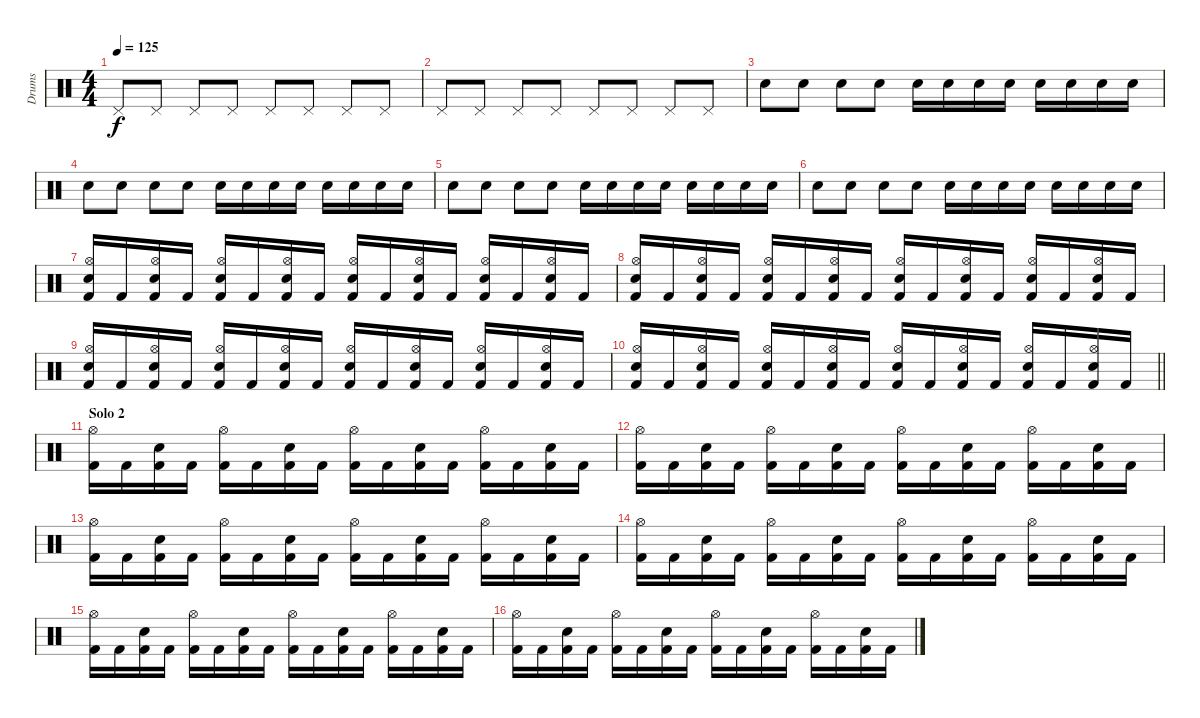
\track ("Drums" "Drums") {instrument percussion}
\staff {score}
\articulation defaults
\ts (4 4)
\tempo 125
\clef neutral
\ks c "Pedal Hi-Hat (hit)".8{dy f} "Pedal Hi-Hat (hit)".8 "Pedal Hi-Hat (hit)".8 "Pedal Hi-Hat (hit)".8 "Pedal Hi-Hat (hit)".8 "Pedal Hi-Hat (hit)".8 "Pedal Hi-Hat (hit)".8 "Pedal Hi-Hat (hit)".8
|
"Pedal Hi-Hat (hit)".8 "Pedal Hi-Hat (hit)".8 "Pedal Hi-Hat (hit)".8 "Pedal Hi-Hat (hit)".8 "Pedal Hi-Hat (hit)".8 "Pedal Hi-Hat (hit)".8 "Pedal Hi-Hat (hit)".8 "Pedal Hi-Hat (hit)".8 |
"Snare (hit) 2".8 "Snare (hit) 2".8 "Snare (hit) 2".8 "Snare (hit) 2".8 "Snare (hit) 2".16 "Snare (hit) 2".16 "Snare (hit) 2".16 "Snare (hit) 2".16 "Snare (hit) 2".16 "Snare (hit) 2".16 "Snare (hit) 2".16 "Snare (hit) 2".16 |
"Snare (hit) 2".8 "Snare (hit) 2".8 "Snare (hit) 2".8 "Snare (hit) 2".8 "Snare (hit) 2".16 "Snare (hit) 2".16 "Snare (hit) 2".16 "Snare (hit) 2".16 "Snare (hit) 2".16 "Snare (hit) 2".16 "Snare (hit) 2".16 "Snare (hit) 2".16 |
"Snare (hit) 2".8 "Snare (hit) 2".8 "Snare (hit) 2".8 "Snare (hit) 2".8 "Snare (hit) 2".16 "Snare (hit) 2".16 "Snare (hit) 2".16 "Snare (hit) 2".16 "Snare (hit) 2".16 "Snare (hit) 2".16 "Snare (hit) 2".16 "Snare (hit) 2".16 |
"Snare (hit) 2".8 "Snare (hit) 2".8 "Snare (hit) 2".8 "Snare (hit) 2".8 "Snare (hit) 2".16 "Snare (hit) 2".16 "Snare (hit) 2".16 "Snare (hit) 2".16 "Snare (hit) 2".16 "Snare (hit) 2".16 "Snare (hit) 2".16 "Snare (hit) 2".16 |
("Hi-Hat (open)" "Snare (hit) 2" "Kick (hit) 2").16 "Kick (hit) 2".16 ("Hi-Hat (open)" "Snare (hit) 2" "Kick (hit) 2").16 "Kick (hit) 2".16 ("Hi-Hat (open)" "Snare (hit) 2" "Kick (hit) 2").16 "Kick (hit) 2".16 ("Hi-Hat (open)" "Snare (hit) 2" "Kick (hit) 2").16 "Kick (hit) 2".16 ("Hi-Hat (open)" "Snare (hit) 2" "Kick (hit) 2").16 "Kick (hit) 2".16 ("Hi-Hat (open)" "Snare (hit) 2" "Kick (hit) 2").16 "Kick (hit) 2".16 ("Hi-Hat (open)" "Snare (hit) 2" "Kick (hit) 2").16 "Kick (hit) 2".16 ("Hi-Hat (open)" "Snare (hit) 2" "Kick (hit) 2").16 "Kick (hit) 2".16 |
("Hi-Hat (open)" "Snare (hit) 2" "Kick (hit) 2").16 "Kick (hit) 2".16 ("Hi-Hat (open)" "Snare (hit) 2" "Kick (hit) 2").16 "Kick (hit) 2".16 ("Hi-Hat (open)" "Snare (hit) 2" "Kick (hit) 2").16 "Kick (hit) 2".16 ("Hi-Hat (open)" "Snare (hit) 2" "Kick (hit) 2").16 "Kick (hit) 2".16 ("Hi-Hat (open)" "Snare (hit) 2" "Kick (hit) 2").16 "Kick (hit) 2".16 ("Hi-Hat (open)" "Snare (hit) 2" "Kick (hit) 2").16 "Kick (hit) 2".16 ("Hi-Hat (open)" "Snare (hit) 2" "Kick (hit) 2").16 "Kick (hit) 2".16 ("Hi-Hat (open)" "Snare (hit) 2" "Kick (hit) 2").16 "Kick (hit) 2".16 |
("Hi-Hat (open)" "Snare (hit) 2" "Kick (hit) 2").16 "Kick (hit) 2".16 ("Hi-Hat (open)" "Snare (hit) 2" "Kick (hit) 2").16 "Kick (hit) 2".16 ("Hi-Hat (open)" "Snare (hit) 2" "Kick (hit) 2").16 "Kick (hit) 2".16 ("Hi-Hat (open)" "Snare (hit) 2" "Kick (hit) 2").16 "Kick (hit) 2".16 ("Hi-Hat (open)" "Snare (hit) 2" "Kick (hit) 2").16 "Kick (hit) 2".16 ("Hi-Hat (open)" "Snare (hit) 2" "Kick (hit) 2").16 "Kick (hit) 2".16 ("Hi-Hat (open)" "Snare (hit) 2" "Kick (hit) 2").16 "Kick (hit) 2".16 ("Hi-Hat (open)" "Snare (hit) 2" "Kick (hit) 2").16 "Kick (hit) 2".16 |
\barLineRight lightlight
("Hi-Hat (open)" "Snare (hit) 2" "Kick (hit) 2").16 "Kick (hit) 2".16 ("Hi-Hat (open)" "Snare (hit) 2" "Kick (hit) 2").16 "Kick (hit) 2".16 ("Hi-Hat (open)" "Snare (hit) 2" "Kick (hit) 2").16 "Kick (hit) 2".16 ("Hi-Hat (open)" "Snare (hit) 2" "Kick (hit) 2").16 "Kick (hit) 2".16 ("Hi-Hat (open)" "Snare (hit) 2" "Kick (hit) 2").16 "Kick (hit) 2".16 ("Hi-Hat (open)" "Snare (hit) 2" "Kick (hit) 2").16 "Kick (hit) 2".16 ("Hi-Hat (open)" "Snare (hit) 2" "Kick (hit) 2").16 "Kick (hit) 2".16 ("Hi-Hat (open)" "Snare (hit) 2" "Kick (hit) 2").16 "Kick (hit) 2".16 |
\section ("" "Solo 2")
("Hi-Hat (open)" "Kick (hit) 2").16 "Kick (hit) 2".16 ("Snare (hit) 2" "Kick (hit) 2").16 "Kick (hit) 2".16 ("Hi-Hat (open)" "Kick (hit) 2").16 "Kick (hit) 2".16 ("Snare (hit) 2" "Kick (hit) 2").16 "Kick (hit) 2".16 ("Hi-Hat (open)" "Kick (hit) 2").16 "Kick (hit) 2".16 ("Snare (hit) 2" "Kick (hit) 2").16 "Kick (hit) 2".16 ("Hi-Hat (open)" "Kick (hit) 2").16 "Kick (hit) 2".16 ("Snare (hit) 2" "Kick (hit) 2").16 "Kick (hit) 2".16 |
("Hi-Hat (open)" "Kick (hit) 2").16 "Kick (hit) 2".16 ("Snare (hit) 2" "Kick (hit) 2").16 "Kick (hit) 2".16 ("Hi-Hat (open)" "Kick (hit) 2").16 "Kick (hit) 2".16 ("Snare (hit) 2" "Kick (hit) 2").16 "Kick (hit) 2".16 ("Hi-Hat (open)" "Kick (hit) 2").16 "Kick (hit) 2".16 ("Snare (hit) 2" "Kick (hit) 2").16 "Kick (hit) 2".16 ("Hi-Hat (open)" "Kick (hit) 2").16 "Kick (hit) 2".16 ("Snare (hit) 2" "Kick (hit) 2").16 "Kick (hit) 2".16 |
("Hi-Hat (open)" "Kick (hit) 2").16 "Kick (hit) 2".16 ("Snare (hit) 2" "Kick (hit) 2").16 "Kick (hit) 2".16 ("Hi-Hat (open)" "Kick (hit) 2").16 "Kick (hit) 2".16 ("Snare (hit) 2" "Kick (hit) 2").16 "Kick (hit) 2".16 ("Hi-Hat (open)" "Kick (hit) 2").16 "Kick (hit) 2".16 ("Snare (hit) 2" "Kick (hit) 2").16 "Kick (hit) 2".16 ("Hi-Hat (open)" "Kick (hit) 2").16 "Kick (hit) 2".16 ("Snare (hit) 2" "Kick (hit) 2").16 "Kick (hit) 2".16 |
("Hi-Hat (open)" "Kick (hit) 2").16 "Kick (hit) 2".16 ("Snare (hit) 2" "Kick (hit) 2").16 "Kick (hit) 2".16 ("Hi-Hat (open)" "Kick (hit) 2").16 "Kick (hit) 2".16 ("Snare (hit) 2" "Kick (hit) 2").16 "Kick (hit) 2".16 ("Hi-Hat (open)" "Kick (hit) 2").16 "Kick (hit) 2".16 ("Snare (hit) 2" "Kick (hit) 2").16 "Kick (hit) 2".16 ("Hi-Hat (open)" "Kick (hit) 2").16 "Kick (hit) 2".16 ("Snare (hit) 2" "Kick (hit) 2").16 "Kick (hit) 2".16 |
("Hi-Hat (open)" "Kick (hit) 2").16 "Kick (hit) 2".16 ("Snare (hit) 2" "Kick (hit) 2").16 "Kick (hit) 2".16 ("Hi-Hat (open)" "Kick (hit) 2").16 "Kick (hit) 2".16 ("Snare (hit) 2" "Kick (hit) 2").16 "Kick (hit) 2".16 ("Hi-Hat (open)" "Kick (hit) 2").16 "Kick (hit) 2".16 ("Snare (hit) 2" "Kick (hit) 2").16 "Kick (hit) 2".16 ("Hi-Hat (open)" "Kick (hit) 2").16 "Kick (hit) 2".16 ("Snare (hit) 2" "Kick (hit) 2").16 "Kick (hit) 2".16 |
("Hi-Hat (open)" "Kick (hit) 2").16 "Kick (hit) 2".16 ("Snare (hit) 2" "Kick (hit) 2").16 "Kick (hit) 2".16 ("Hi-Hat (open)" "Kick (hit) 2").16 "Kick (hit) 2".16 ("Snare (hit) 2" "Kick (hit) 2").16 "Kick (hit) 2".16 ("Hi-Hat (open)" "Kick (hit) 2").16 "Kick (hit) 2".16 ("Snare (hit) 2" "Kick (hit) 2").16 "Kick (hit) 2".16 ("Hi-Hat (open)" "Kick (hit) 2").16 "Kick (hit) 2".16 ("Snare (hit) 2" "Kick (hit) 2").16 "Kick (hit) 2".16
